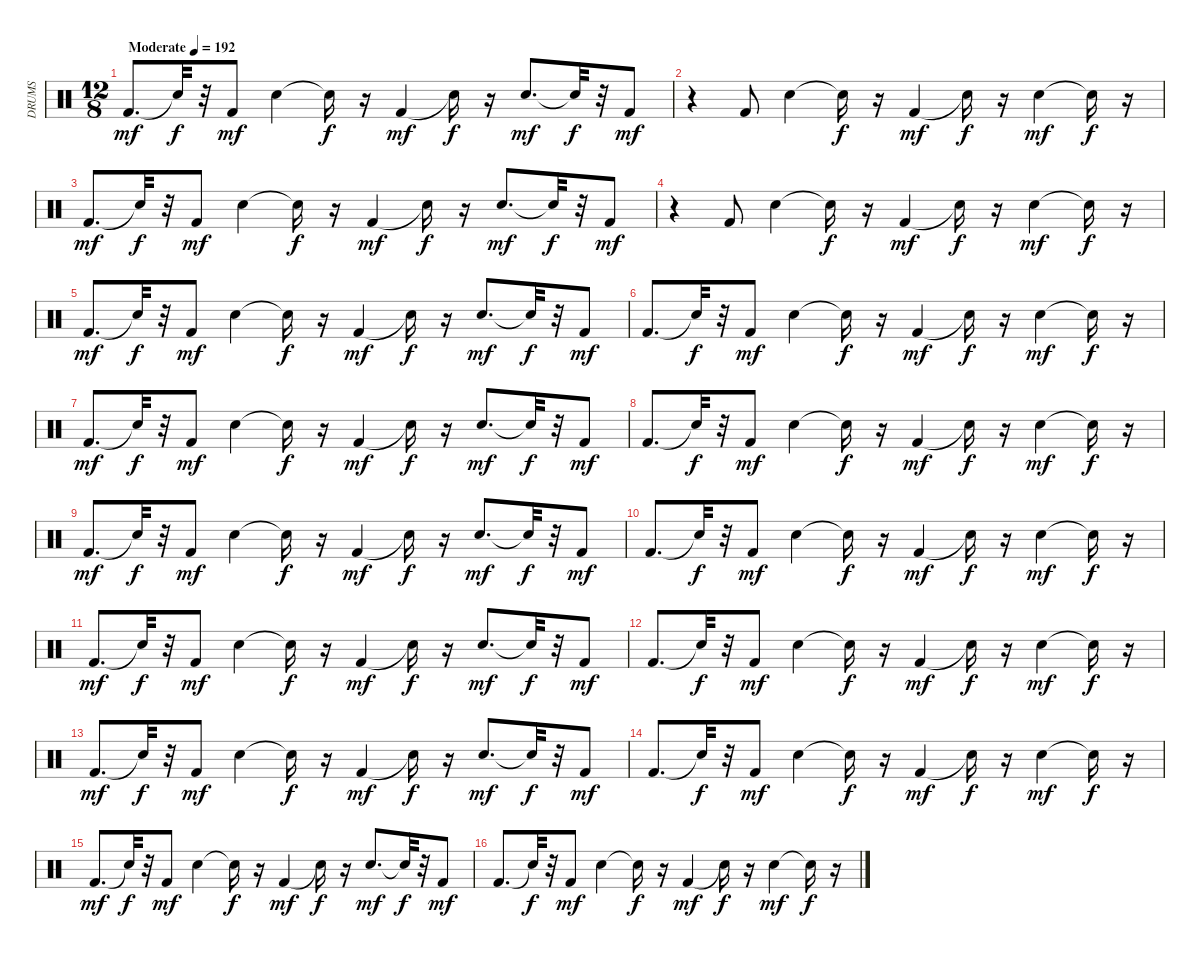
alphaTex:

\track ("DRUMS" "DRUMS") {instrument percussion}
\staff {score}
\articulation defaults
\ts (12 8)
\tempo (192 "Moderate")
\clef neutral
\ks c "Kick (hit) 2".8{d dy mf} "Snare (hit)"{t}.32{dy f}
r.32 "Kick (hit) 2".8{dy mf} "Hand Clap (hit)".4 "Snare (hit)"{t}.16{dy f} r.16 "Kick (hit) 2".4{dy mf} "Snare (hit)"{t}.16{dy f} r.16 "Hand Clap (hit)".8{d dy mf} "Snare (hit)"{t}.32{dy f} r.32 "Kick (hit) 2".8{dy mf} |
r.4 "Kick (hit) 2".8 "Hand Clap (hit)".4 "Snare (hit)"{t}.16{dy f} r.16 "Kick (hit) 2".4{dy mf} "Snare (hit)"{t}.16{dy f} r.16 "Hand Clap (hit)".4{dy mf} "Snare (hit)"{t}.16{dy f} r.16 |
"Kick (hit) 2".8{d dy mf} "Snare (hit)"{t}.32{dy f} r.32 "Kick (hit) 2".8{dy mf} "Hand Clap (hit)".4 "Snare (hit)"{t}.16{dy f} r.16 "Kick (hit) 2".4{dy mf} "Snare (hit)"{t}.16{dy f} r.16 "Hand Clap (hit)".8{d dy mf} "Snare (hit)"{t}.32{dy f} r.32 "Kick (hit) 2".8{dy mf} |
r.4 "Kick (hit) 2".8 "Hand Clap (hit)".4 "Snare (hit)"{t}.16{dy f} r.16 "Kick (hit) 2".4{dy mf} "Snare (hit)"{t}.16{dy f} r.16 "Hand Clap (hit)".4{dy mf} "Snare (hit)"{t}.16{dy f} r.16 |
"Kick (hit) 2".8{d dy mf} "Snare (hit)"{t}.32{dy f} r.32 "Kick (hit) 2".8{dy mf} "Snare (hit) 2".4 "Snare (hit)"{t}.16{dy f} r.16 "Kick (hit) 2".4{dy mf} "Snare (hit)"{t}.16{dy f} r.16 "Snare (hit) 2".8{d dy mf} "Snare (hit)"{t}.32{dy f} r.32 "Kick (hit) 2".8{dy mf} |
"Kick (hit) 2".8{d} "Snare (hit)"{t}.32{dy f} r.32 "Kick (hit) 2".8{dy mf} "Snare (hit) 2".4 "Snare (hit)"{t}.16{dy f} r.16 "Kick (hit) 2".4{dy mf} "Snare (hit)"{t}.16{dy f} r.16 "Snare (hit) 2".4{dy mf} "Snare (hit)"{t}.16{dy f} r.16 |
"Kick (hit) 2".8{d dy mf} "Snare (hit)"{t}.32{dy f} r.32 "Kick (hit) 2".8{dy mf} "Snare (hit) 2".4 "Snare (hit)"{t}.16{dy f} r.16 "Kick (hit) 2".4{dy mf} "Snare (hit)"{t}.16{dy f} r.16 "Snare (hit) 2".8{d dy mf} "Snare (hit)"{t}.32{dy f} r.32 "Kick (hit) 2".8{dy mf} |
"Kick (hit) 2".8{d} "Snare (hit)"{t}.32{dy f} r.32 "Kick (hit) 2".8{dy mf} "Snare (hit) 2".4 "Snare (hit)"{t}.16{dy f} r.16 "Kick (hit) 2".4{dy mf} "Snare (hit)"{t}.16{dy f} r.16 "Snare (hit) 2".4{dy mf} "Snare (hit)"{t}.16{dy f} r.16 |
"Kick (hit) 2".8{d dy mf} "Snare (hit)"{t}.32{dy f} r.32 "Kick (hit) 2".8{dy mf} "Snare (hit) 2".4 "Snare (hit)"{t}.16{dy f} r.16 "Kick (hit) 2".4{dy mf} "Snare (hit)"{t}.16{dy f} r.16 "Snare (hit) 2".8{d dy mf} "Snare (hit)"{t}.32{dy f} r.32 "Kick (hit) 2".8{dy mf} |
"Kick (hit) 2".8{d} "Snare (hit)"{t}.32{dy f} r.32 "Kick (hit) 2".8{dy mf} "Snare (hit) 2".4 "Snare (hit)"{t}.16{dy f} r.16 "Kick (hit) 2".4{dy mf} "Snare (hit)"{t}.16{dy f} r.16 "Snare (hit) 2".4{dy mf} "Snare (hit)"{t}.16{dy f} r.16 |
"Kick (hit) 2".8{d dy mf} "Snare (hit)"{t}.32{dy f} r.32 "Kick (hit) 2".8{dy mf} "Snare (hit) 2".4 "Snare (hit)"{t}.16{dy f} r.16 "Kick (hit) 2".4{dy mf} "Snare (hit)"{t}.16{dy f} r.16 "Snare (hit) 2".8{d dy mf} "Snare (hit)"{t}.32{dy f} r.32 "Kick (hit) 2".8{dy mf} |
"Kick (hit) 2".8{d} "Snare (hit)"{t}.32{dy f} r.32 "Kick (hit) 2".8{dy mf} "Snare (hit) 2".4 "Snare (hit)"{t}.16{dy f} r.16 "Kick (hit) 2".4{dy mf} "Snare (hit)"{t}.16{dy f} r.16 "Snare (hit) 2".4{dy mf} "Snare (hit)"{t}.16{dy f} r.16 |
"Kick (hit) 2".8{d dy mf} "Snare (hit)"{t}.32{dy f} r.32 "Kick (hit) 2".8{dy mf} "Snare (hit) 2".4 "Snare (hit)"{t}.16{dy f} r.16 "Kick (hit) 2".4{dy mf} "Snare (hit)"{t}.16{dy f} r.16 "Snare (hit) 2".8{d dy mf} "Snare (hit)"{t}.32{dy f} r.32 "Kick (hit) 2".8{dy mf} |
"Kick (hit) 2".8{d} "Snare (hit)"{t}.32{dy f} r.32 "Kick (hit) 2".8{dy mf} "Snare (hit) 2".4 "Snare (hit)"{t}.16{dy f} r.16 "Kick (hit) 2".4{dy mf} "Snare (hit)"{t}.16{dy f} r.16 "Snare (hit) 2".4{dy mf} "Snare (hit)"{t}.16{dy f} r.16 |
"Kick (hit) 2".8{d dy mf} "Snare (hit)"{t}.32{dy f} r.32 "Kick (hit) 2".8{dy mf} "Snare (hit) 2".4 "Snare (hit)"{t}.16{dy f} r.16 "Kick (hit) 2".4{dy mf} "Snare (hit)"{t}.16{dy f} r.16 "Snare (hit) 2".8{d dy mf} "Snare (hit)"{t}.32{dy f} r.32 "Kick (hit) 2".8{dy mf} |
"Kick (hit) 2".8{d} "Snare (hit)"{t}.32{dy f} r.32 "Kick (hit) 2".8{dy mf} "Snare (hit) 2".4 "Snare (hit)"{t}.16{dy f} r.16 "Kick (hit) 2".4{dy mf} "Snare (hit)"{t}.16{dy f} r.16 "Snare (hit) 2".4{dy mf} "Snare (hit)"{t}.16{dy f} r.16
